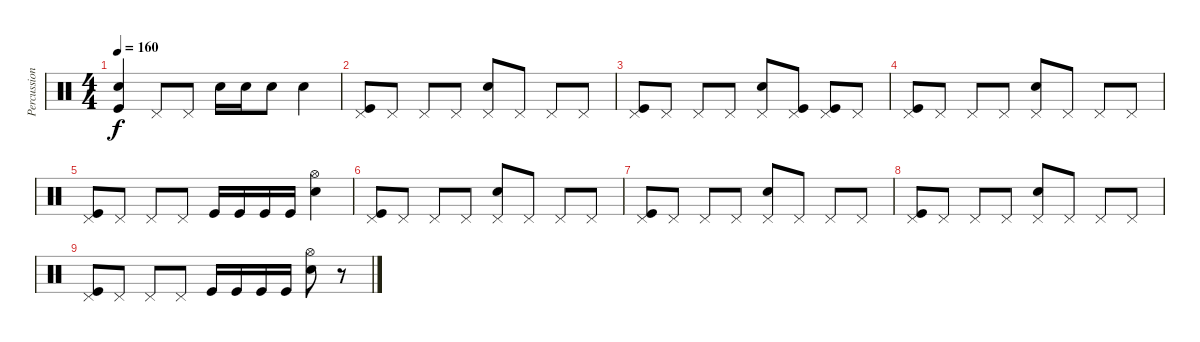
\track ("Percussion" "Percussion") {instrument percussion}
\staff {score}
\articulation defaults
\ts (4 4)
\tempo 160
\clef neutral
\ks c
("Electric Snare (hit)" "Kick (hit)").4{dy f} "Pedal Hi-Hat (hit)".8 "Pedal Hi-Hat (hit)".8 "Electric Snare (hit)".16 "Electric Snare (hit)".16 "Electric Snare (hit)".8 "Electric Snare (hit)".4 |
("Pedal Hi-Hat (hit)" "Kick (hit)").8{volume 2} "Pedal Hi-Hat (hit)".8 "Pedal Hi-Hat (hit)".8 "Pedal Hi-Hat (hit)".8 ("Pedal Hi-Hat (hit)" "Electric Snare (hit)").8 "Pedal Hi-Hat (hit)".8 "Pedal Hi-Hat (hit)".8 "Pedal Hi-Hat (hit)".8 |
("Pedal Hi-Hat (hit)" "Kick (hit)").8 "Pedal Hi-Hat (hit)".8 "Pedal Hi-Hat (hit)".8 "Pedal Hi-Hat (hit)".8 ("Pedal Hi-Hat (hit)" "Electric Snare (hit)").8 ("Pedal Hi-Hat (hit)" "Kick (hit)").8 ("Pedal Hi-Hat (hit)" "Kick (hit)").8 "Pedal Hi-Hat (hit)".8 |
("Pedal Hi-Hat (hit)" "Kick (hit)").8 "Pedal Hi-Hat (hit)".8 "Pedal Hi-Hat (hit)".8 "Pedal Hi-Hat (hit)".8 ("Pedal Hi-Hat (hit)" "Electric Snare (hit)").8 "Pedal Hi-Hat (hit)".8 "Pedal Hi-Hat (hit)".8 "Pedal Hi-Hat (hit)".8 |
("Pedal Hi-Hat (hit)" "Kick (hit)").8 "Pedal Hi-Hat (hit)".8 "Pedal Hi-Hat (hit)".8 "Pedal Hi-Hat (hit)".8 "Kick (hit)".16 "Kick (hit)".16 "Kick (hit)".16 "Kick (hit)".16 ("Hi-Hat (open)" "Electric Snare (hit)").4 |
("Pedal Hi-Hat (hit)" "Kick (hit)").8{volume 0} "Pedal Hi-Hat (hit)".8 "Pedal Hi-Hat (hit)".8 "Pedal Hi-Hat (hit)".8 ("Pedal Hi-Hat (hit)" "Electric Snare (hit)").8 "Pedal Hi-Hat (hit)".8 "Pedal Hi-Hat (hit)".8 "Pedal Hi-Hat (hit)".8 |
("Pedal Hi-Hat (hit)" "Kick (hit)").8 "Pedal Hi-Hat (hit)".8 "Pedal Hi-Hat (hit)".8 "Pedal Hi-Hat (hit)".8 ("Pedal Hi-Hat (hit)" "Electric Snare (hit)").8 "Pedal Hi-Hat (hit)".8 "Pedal Hi-Hat (hit)".8 "Pedal Hi-Hat (hit)".8 |
("Pedal Hi-Hat (hit)" "Kick (hit)").8 "Pedal Hi-Hat (hit)".8 "Pedal Hi-Hat (hit)".8 "Pedal Hi-Hat (hit)".8 ("Pedal Hi-Hat (hit)" "Electric Snare (hit)").8 "Pedal Hi-Hat (hit)".8 "Pedal Hi-Hat (hit)".8 "Pedal Hi-Hat (hit)".8 |
("Pedal Hi-Hat (hit)" "Kick (hit)").8 "Pedal Hi-Hat (hit)".8 "Pedal Hi-Hat (hit)".8 "Pedal Hi-Hat (hit)".8 "Kick (hit)".16 "Kick (hit)".16 "Kick (hit)".16 "Kick (hit)".16 ("Hi-Hat (open)" "Electric Snare (hit)").8 r.8
